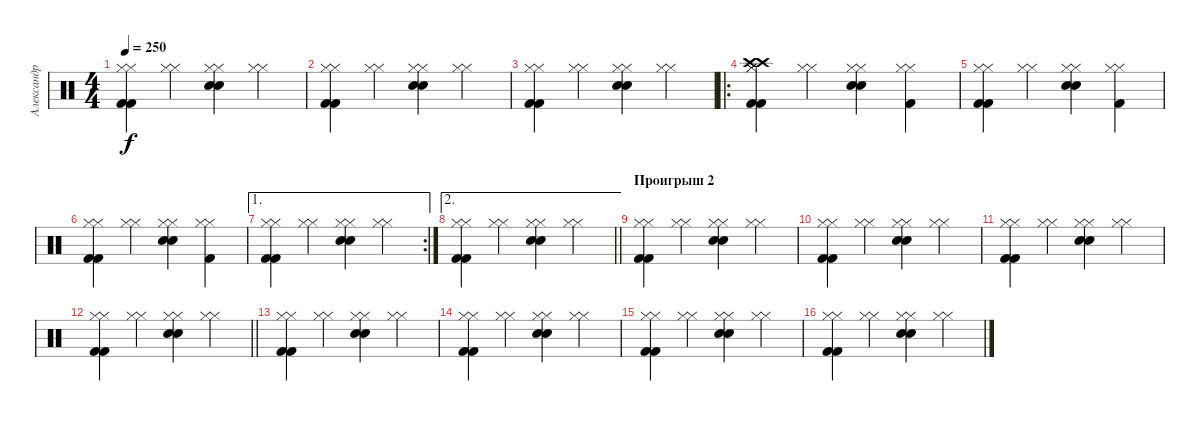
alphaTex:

\track ("Александр Андрюшкин" "Александр ") {instrument percussion}
\staff {score}
\articulation defaults
\ts (4 4)
\tempo 250
\clef neutral
\ks c
("Hi-Hat (closed)" "Hi-Hat (closed)" "Kick (hit) 2" "Kick (hit) 2").4{dy f} ("Hi-Hat (closed)" "Hi-Hat (closed)").4 ("Hi-Hat (closed)" "Hi-Hat (closed)" "Snare (hit) 2" "Snare (hit) 2").4 ("Hi-Hat (closed)" "Hi-Hat (closed)").4 |
("Hi-Hat (closed)" "Hi-Hat (closed)" "Kick (hit) 2" "Kick (hit) 2").4 ("Hi-Hat (closed)" "Hi-Hat (closed)").4 ("Hi-Hat (closed)" "Hi-Hat (closed)" "Snare (hit) 2" "Snare (hit) 2").4 ("Hi-Hat (closed)" "Hi-Hat (closed)").4 |
("Hi-Hat (closed)" "Hi-Hat (closed)" "Kick (hit) 2" "Kick (hit) 2").4 ("Hi-Hat (closed)" "Hi-Hat (closed)").4 ("Hi-Hat (closed)" "Hi-Hat (closed)" "Snare (hit) 2" "Snare (hit) 2").4 ("Hi-Hat (closed)" "Hi-Hat (closed)").4 |
\ro
("Hi-Hat (closed)" "Hi-Hat (closed)" "Crash high (hit)" "Crash high (hit)" "Kick (hit) 2" "Kick (hit) 2").4 ("Hi-Hat (closed)" "Hi-Hat (closed)").4 ("Hi-Hat (closed)" "Hi-Hat (closed)" "Snare (hit) 2" "Snare (hit) 2").4 ("Hi-Hat (closed)" "Hi-Hat (closed)" "Kick (hit) 2").4 |
("Hi-Hat (closed)" "Hi-Hat (closed)" "Kick (hit) 2" "Kick (hit) 2").4 ("Hi-Hat (closed)" "Hi-Hat (closed)").4 ("Hi-Hat (closed)" "Hi-Hat (closed)" "Snare (hit) 2" "Snare (hit) 2").4 ("Hi-Hat (closed)" "Hi-Hat (closed)" "Kick (hit) 2").4 |
("Hi-Hat (closed)" "Hi-Hat (closed)" "Kick (hit) 2" "Kick (hit) 2").4 ("Hi-Hat (closed)" "Hi-Hat (closed)").4 ("Hi-Hat (closed)" "Hi-Hat (closed)" "Snare (hit) 2" "Snare (hit) 2").4 ("Hi-Hat (closed)" "Hi-Hat (closed)" "Kick (hit) 2").4 |
\ae 1
\rc 2
("Hi-Hat (closed)" "Hi-Hat (closed)" "Kick (hit) 2" "Kick (hit) 2").4 ("Hi-Hat (closed)" "Hi-Hat (closed)").4 ("Hi-Hat (closed)" "Hi-Hat (closed)" "Snare (hit) 2" "Snare (hit) 2").4 ("Hi-Hat (closed)" "Hi-Hat (closed)").4 |
\ae 2
\barLineRight lightlight
("Hi-Hat (closed)" "Hi-Hat (closed)" "Kick (hit) 2" "Kick (hit) 2").4 ("Hi-Hat (closed)" "Hi-Hat (closed)").4 ("Hi-Hat (closed)" "Hi-Hat (closed)" "Snare (hit) 2" "Snare (hit) 2").4 ("Hi-Hat (closed)" "Hi-Hat (closed)").4 |
\section ("" "Проигрыш 2")
("Hi-Hat (closed)" "Hi-Hat (closed)" "Kick (hit) 2" "Kick (hit) 2").4 ("Hi-Hat (closed)" "Hi-Hat (closed)").4 ("Hi-Hat (closed)" "Hi-Hat (closed)" "Snare (hit) 2" "Snare (hit) 2").4 ("Hi-Hat (closed)" "Hi-Hat (closed)").4 |
("Hi-Hat (closed)" "Hi-Hat (closed)" "Kick (hit) 2" "Kick (hit) 2").4 ("Hi-Hat (closed)" "Hi-Hat (closed)").4 ("Hi-Hat (closed)" "Hi-Hat (closed)" "Snare (hit) 2" "Snare (hit) 2").4 ("Hi-Hat (closed)" "Hi-Hat (closed)").4 |
("Hi-Hat (closed)" "Hi-Hat (closed)" "Kick (hit) 2" "Kick (hit) 2").4 ("Hi-Hat (closed)" "Hi-Hat (closed)").4 ("Hi-Hat (closed)" "Hi-Hat (closed)" "Snare (hit) 2" "Snare (hit) 2").4 ("Hi-Hat (closed)" "Hi-Hat (closed)").4 |
\barLineRight lightlight
("Hi-Hat (closed)" "Hi-Hat (closed)" "Kick (hit) 2" "Kick (hit) 2").4 ("Hi-Hat (closed)" "Hi-Hat (closed)").4 ("Hi-Hat (closed)" "Hi-Hat (closed)" "Snare (hit) 2" "Snare (hit) 2").4 ("Hi-Hat (closed)" "Hi-Hat (closed)").4 |
("Hi-Hat (closed)" "Hi-Hat (closed)" "Kick (hit) 2" "Kick (hit) 2").4 ("Hi-Hat (closed)" "Hi-Hat (closed)").4 ("Hi-Hat (closed)" "Hi-Hat (closed)" "Snare (hit) 2" "Snare (hit) 2").4 ("Hi-Hat (closed)" "Hi-Hat (closed)").4 |
("Hi-Hat (closed)" "Hi-Hat (closed)" "Kick (hit) 2" "Kick (hit) 2").4 ("Hi-Hat (closed)" "Hi-Hat (closed)").4 ("Hi-Hat (closed)" "Hi-Hat (closed)" "Snare (hit) 2" "Snare (hit) 2").4 ("Hi-Hat (closed)" "Hi-Hat (closed)").4 |
("Hi-Hat (closed)" "Hi-Hat (closed)" "Kick (hit) 2" "Kick (hit) 2").4 ("Hi-Hat (closed)" "Hi-Hat (closed)").4 ("Hi-Hat (closed)" "Hi-Hat (closed)" "Snare (hit) 2" "Snare (hit) 2").4 ("Hi-Hat (closed)" "Hi-Hat (closed)").4 |
("Hi-Hat (closed)" "Hi-Hat (closed)" "Kick (hit) 2" "Kick (hit) 2").4 ("Hi-Hat (closed)" "Hi-Hat (closed)").4 ("Hi-Hat (closed)" "Hi-Hat (closed)" "Snare (hit) 2" "Snare (hit) 2").4 ("Hi-Hat (closed)" "Hi-Hat (closed)").4
